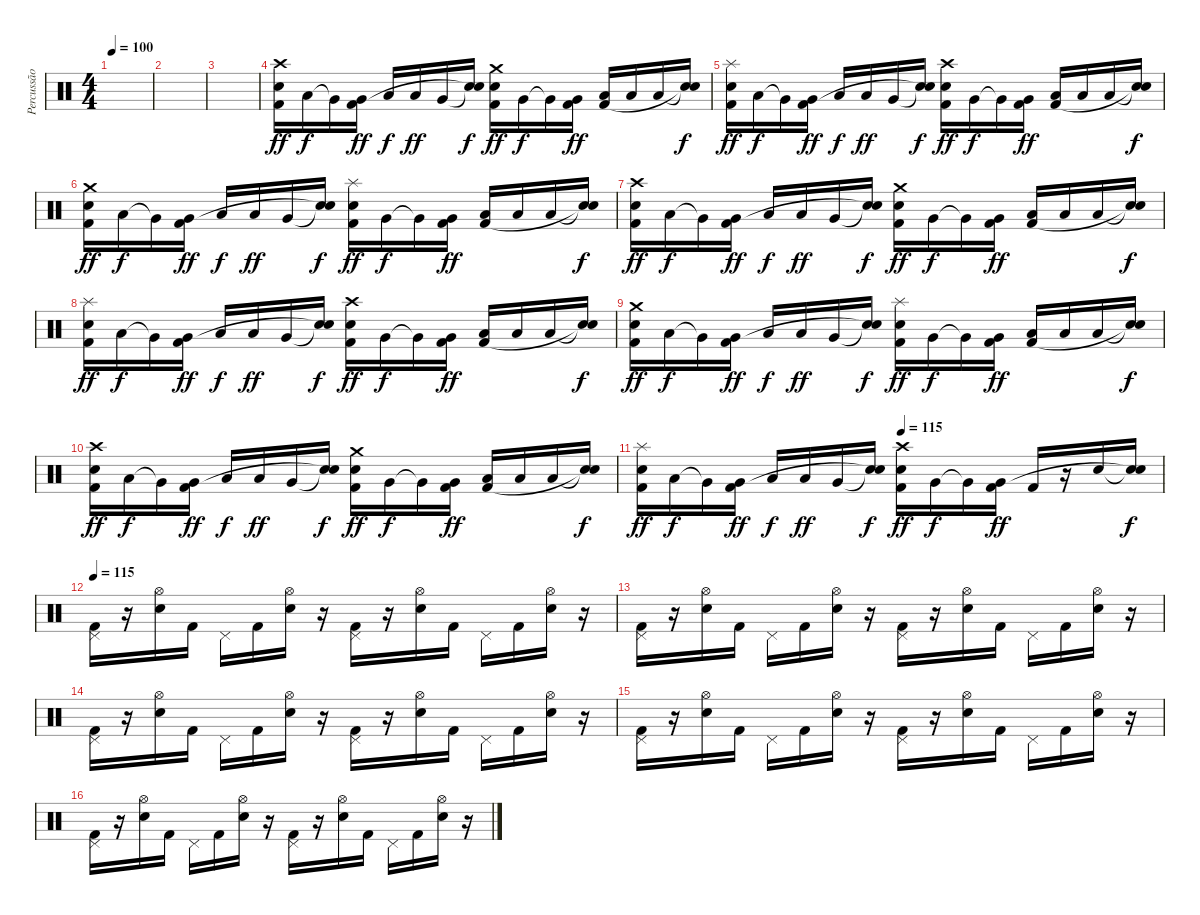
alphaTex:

\track ("Percussão" "Percussão") {instrument percussion}
\staff {score}
\articulation defaults
\ts (4 4)
\tempo 100
\clef neutral
\ks c
|
|
|
("Crash high (hit)" "Electric Snare (hit)" "Kick (hit) 2").16{dy ff} "Low Tom (hit)".16{dy f} "Very Low Tom (hit)"{t}.16 ("Very Low Tom (hit)" "Kick (hit) 2").16{dy ff} "Low Floor Tom (hit)".16{dy f} "Low Floor Tom (hit)".16{dy ff} "Very Low Tom (hit)".16 ("Snare (hit)"{t} "Electric Snare (hit)"{t}).16{dy f} ("Crash medium (hit)" "Electric Snare (hit)" "Kick (hit) 2").16{dy ff} "Very Low Tom (hit)".16{dy f} "Very Low Tom (hit)"{t}.16 ("Very Low Tom (hit)" "Kick (hit) 2").16{dy ff} ("Low Floor Tom (hit)" "Kick (hit) 2").16 "Low Floor Tom (hit)".16 "Low Floor Tom (hit)".16 ("Snare (hit)"{t} "Snare (hit)"{t}).16{dy f} |
("Splash (hit)" "Electric Snare (hit)" "Kick (hit) 2").16{dy ff} "Low Tom (hit)".16{dy f} "Very Low Tom (hit)"{t}.16 ("Very Low Tom (hit)" "Kick (hit) 2").16{dy ff} "Low Floor Tom (hit)".16{dy f} "Low Floor Tom (hit)".16{dy ff} "Very Low Tom (hit)".16 ("Snare (hit)"{t} "Electric Snare (hit)"{t}).16{dy f} ("Crash high (hit)" "Electric Snare (hit)" "Kick (hit) 2").16{dy ff} "Very Low Tom (hit)".16{dy f} "Very Low Tom (hit)"{t}.16 ("Very Low Tom (hit)" "Kick (hit) 2").16{dy ff} ("Low Floor Tom (hit)" "Kick (hit) 2").16 "Low Floor Tom (hit)".16 "Low Floor Tom (hit)".16 ("Snare (hit)"{t} "Snare (hit)"{t}).16{dy f} |
("Crash medium (hit)" "Electric Snare (hit)" "Kick (hit) 2").16{dy ff} "Low Tom (hit)".16{dy f} "Very Low Tom (hit)"{t}.16 ("Very Low Tom (hit)" "Kick (hit) 2").16{dy ff} "Low Floor Tom (hit)".16{dy f} "Low Floor Tom (hit)".16{dy ff} "Very Low Tom (hit)".16 ("Snare (hit)"{t} "Electric Snare (hit)"{t}).16{dy f} ("Splash (hit)" "Electric Snare (hit)" "Kick (hit) 2").16{dy ff} "Very Low Tom (hit)".16{dy f} "Very Low Tom (hit)"{t}.16 ("Very Low Tom (hit)" "Kick (hit) 2").16{dy ff} ("Low Floor Tom (hit)" "Kick (hit) 2").16 "Low Floor Tom (hit)".16 "Low Floor Tom (hit)".16 ("Snare (hit)"{t} "Snare (hit)"{t}).16{dy f} |
("Crash high (hit)" "Electric Snare (hit)" "Kick (hit) 2").16{dy ff} "Low Tom (hit)".16{dy f} "Very Low Tom (hit)"{t}.16 ("Very Low Tom (hit)" "Kick (hit) 2").16{dy ff} "Low Floor Tom (hit)".16{dy f} "Low Floor Tom (hit)".16{dy ff} "Very Low Tom (hit)".16 ("Snare (hit)"{t} "Electric Snare (hit)"{t}).16{dy f} ("Crash medium (hit)" "Electric Snare (hit)" "Kick (hit) 2").16{dy ff} "Very Low Tom (hit)".16{dy f} "Very Low Tom (hit)"{t}.16 ("Very Low Tom (hit)" "Kick (hit) 2").16{dy ff} ("Low Floor Tom (hit)" "Kick (hit) 2").16 "Low Floor Tom (hit)".16 "Low Floor Tom (hit)".16 ("Snare (hit)"{t} "Snare (hit)"{t}).16{dy f} |
("Splash (hit)" "Electric Snare (hit)" "Kick (hit) 2").16{dy ff} "Low Tom (hit)".16{dy f} "Very Low Tom (hit)"{t}.16 ("Very Low Tom (hit)" "Kick (hit) 2").16{dy ff} "Low Floor Tom (hit)".16{dy f} "Low Floor Tom (hit)".16{dy ff} "Very Low Tom (hit)".16 ("Snare (hit)"{t} "Electric Snare (hit)"{t}).16{dy f} ("Crash high (hit)" "Electric Snare (hit)" "Kick (hit) 2").16{dy ff} "Very Low Tom (hit)".16{dy f} "Very Low Tom (hit)"{t}.16 ("Very Low Tom (hit)" "Kick (hit) 2").16{dy ff} ("Low Floor Tom (hit)" "Kick (hit) 2").16 "Low Floor Tom (hit)".16 "Low Floor Tom (hit)".16 ("Snare (hit)"{t} "Snare (hit)"{t}).16{dy f} |
("Crash medium (hit)" "Electric Snare (hit)" "Kick (hit) 2").16{dy ff} "Low Tom (hit)".16{dy f} "Very Low Tom (hit)"{t}.16 ("Very Low Tom (hit)" "Kick (hit) 2").16{dy ff} "Low Floor Tom (hit)".16{dy f} "Low Floor Tom (hit)".16{dy ff} "Very Low Tom (hit)".16 ("Snare (hit)"{t} "Electric Snare (hit)"{t}).16{dy f} ("Splash (hit)" "Electric Snare (hit)" "Kick (hit) 2").16{dy ff} "Very Low Tom (hit)".16{dy f} "Very Low Tom (hit)"{t}.16 ("Very Low Tom (hit)" "Kick (hit) 2").16{dy ff} ("Low Floor Tom (hit)" "Kick (hit) 2").16 "Low Floor Tom (hit)".16 "Low Floor Tom (hit)".16 ("Snare (hit)"{t} "Snare (hit)"{t}).16{dy f} |
("Crash high (hit)" "Electric Snare (hit)" "Kick (hit) 2").16{dy ff} "Low Tom (hit)".16{dy f} "Very Low Tom (hit)"{t}.16 ("Very Low Tom (hit)" "Kick (hit) 2").16{dy ff} "Low Floor Tom (hit)".16{dy f} "Low Floor Tom (hit)".16{dy ff} "Very Low Tom (hit)".16 ("Snare (hit)"{t} "Electric Snare (hit)"{t}).16{dy f} ("Crash medium (hit)" "Electric Snare (hit)" "Kick (hit) 2").16{dy ff} "Very Low Tom (hit)".16{dy f} "Very Low Tom (hit)"{t}.16 ("Very Low Tom (hit)" "Kick (hit) 2").16{dy ff} ("Low Floor Tom (hit)" "Kick (hit) 2").16 "Low Floor Tom (hit)".16 "Low Floor Tom (hit)".16 ("Snare (hit)"{t} "Snare (hit)"{t}).16{dy f} |
\tempo (115 0.5)
("Splash (hit)" "Electric Snare (hit)" "Kick (hit) 2").16{dy ff} "Low Tom (hit)".16{dy f} "Very Low Tom (hit)"{t}.16 ("Very Low Tom (hit)" "Kick (hit) 2").16{dy ff} "Low Floor Tom (hit)".16{dy f} "Low Floor Tom (hit)".16{dy ff} "Very Low Tom (hit)".16 ("Snare (hit)"{t} "Electric Snare (hit)"{t}).16{dy f} ("Crash high (hit)" "Electric Snare (hit)" "Kick (hit) 2").16{dy ff} "Very Low Tom (hit)".16{dy f} "Very Low Tom (hit)"{t}.16 ("Very Low Tom (hit)" "Kick (hit) 2").16{dy ff} "Kick (hit) 2".16 r.16 "Electric Snare (hit)".16 ("Snare (hit)"{t} "Snare (hit)"{t}).16{dy f} |
\tempo 115
("Pedal Hi-Hat (hit)" "Kick (hit) 2").16 r.16 ("Hi-Hat (open)" "Electric Snare (hit)").16 "Kick (hit) 2".16 "Pedal Hi-Hat (hit)".16 "Kick (hit) 2".16 ("Hi-Hat (open)" "Electric Snare (hit)").16 r.16 ("Pedal Hi-Hat (hit)" "Kick (hit) 2").16 r.16 ("Hi-Hat (open)" "Electric Snare (hit)").16 "Kick (hit) 2".16 "Pedal Hi-Hat (hit)".16 "Kick (hit) 2".16 ("Hi-Hat (open)" "Electric Snare (hit)").16 r.16 |
("Pedal Hi-Hat (hit)" "Kick (hit) 2").16 r.16 ("Hi-Hat (open)" "Electric Snare (hit)").16 "Kick (hit) 2".16 "Pedal Hi-Hat (hit)".16 "Kick (hit) 2".16 ("Hi-Hat (open)" "Electric Snare (hit)").16 r.16 ("Pedal Hi-Hat (hit)" "Kick (hit) 2").16 r.16 ("Hi-Hat (open)" "Electric Snare (hit)").16 "Kick (hit) 2".16 "Pedal Hi-Hat (hit)".16 "Kick (hit) 2".16 ("Hi-Hat (open)" "Electric Snare (hit)").16 r.16 |
("Pedal Hi-Hat (hit)" "Kick (hit) 2").16 r.16 ("Hi-Hat (open)" "Electric Snare (hit)").16 "Kick (hit) 2".16 "Pedal Hi-Hat (hit)".16 "Kick (hit) 2".16 ("Hi-Hat (open)" "Electric Snare (hit)").16 r.16 ("Pedal Hi-Hat (hit)" "Kick (hit) 2").16 r.16 ("Hi-Hat (open)" "Electric Snare (hit)").16 "Kick (hit) 2".16 "Pedal Hi-Hat (hit)".16 "Kick (hit) 2".16 ("Hi-Hat (open)" "Electric Snare (hit)").16 r.16 |
("Pedal Hi-Hat (hit)" "Kick (hit) 2").16 r.16 ("Hi-Hat (open)" "Electric Snare (hit)").16 "Kick (hit) 2".16 "Pedal Hi-Hat (hit)".16 "Kick (hit) 2".16 ("Hi-Hat (open)" "Electric Snare (hit)").16 r.16 ("Pedal Hi-Hat (hit)" "Kick (hit) 2").16 r.16 ("Hi-Hat (open)" "Electric Snare (hit)").16 "Kick (hit) 2".16 "Pedal Hi-Hat (hit)".16 "Kick (hit) 2".16 ("Hi-Hat (open)" "Electric Snare (hit)").16 r.16 |
("Pedal Hi-Hat (hit)" "Kick (hit) 2").16 r.16 ("Hi-Hat (open)" "Electric Snare (hit)").16 "Kick (hit) 2".16 "Pedal Hi-Hat (hit)".16 "Kick (hit) 2".16 ("Hi-Hat (open)" "Electric Snare (hit)").16 r.16 ("Pedal Hi-Hat (hit)" "Kick (hit) 2").16 r.16 ("Hi-Hat (open)" "Electric Snare (hit)").16 "Kick (hit) 2".16 "Pedal Hi-Hat (hit)".16 "Kick (hit) 2".16 ("Hi-Hat (open)" "Electric Snare (hit)").16 r.16
